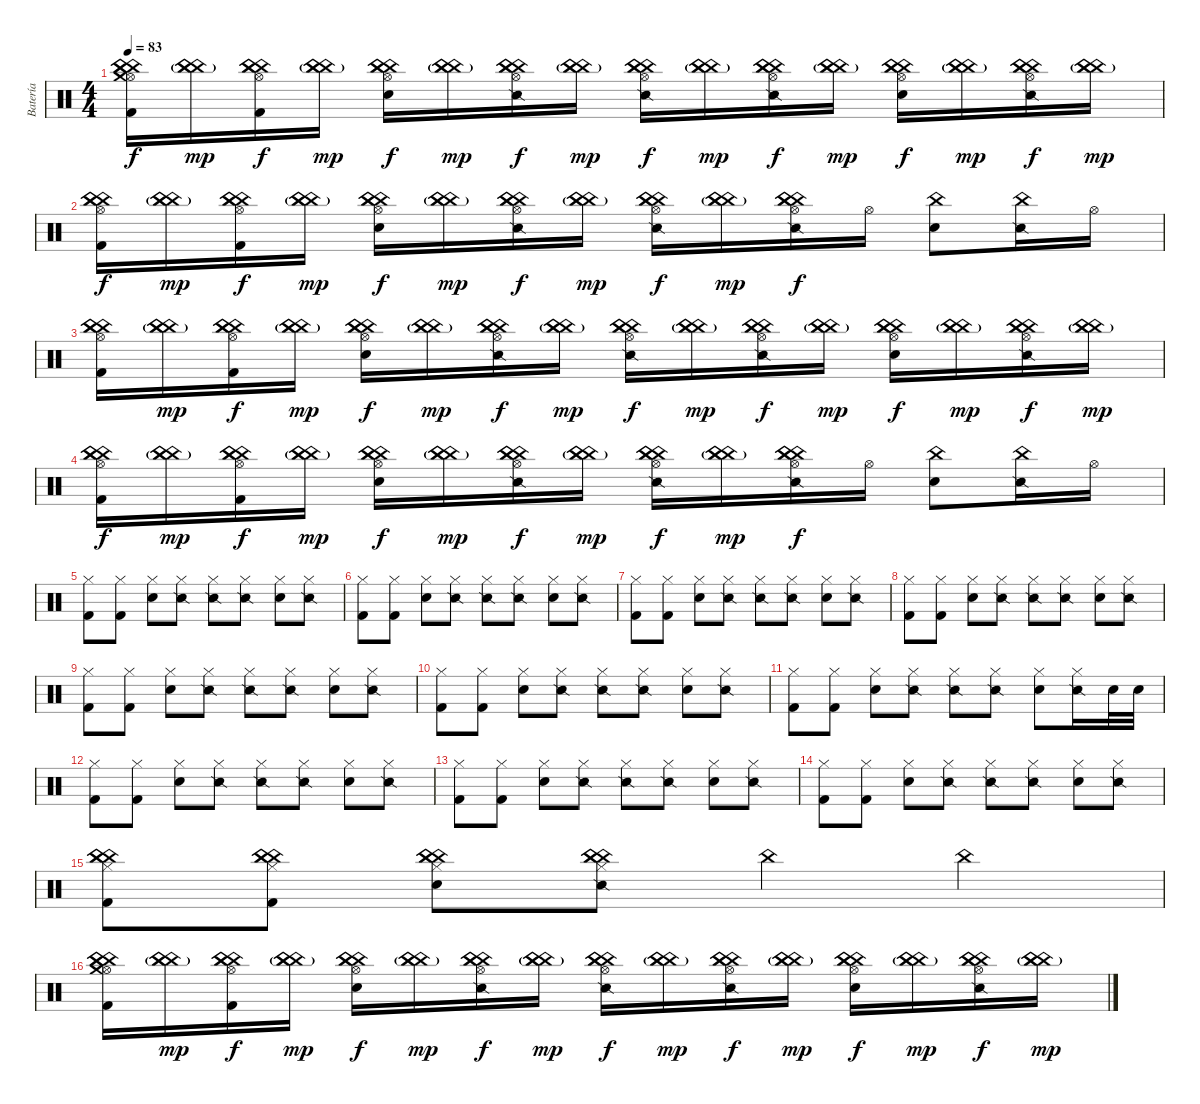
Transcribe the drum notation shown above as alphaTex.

\track ("Batería" "Batería") {instrument percussion}
\staff {score}
\articulation defaults
\ts (4 4)
\tempo 83
\clef neutral
\ks c
("Hi-Hat (open)" "China (hit)" "China (hit)" "China (hit)" "Kick (hit) 2" "Crash medium (hit)").16{dy f} ("China (hit)"{g} "China (hit)"{g} "China (hit)"{g}).16{dy mp} ("Hi-Hat (open)" "China (hit)" "China (hit)" "China (hit)" "Kick (hit) 2").16{dy f} ("China (hit)"{g} "China (hit)"{g} "China (hit)"{g}).16{dy mp} ("Hi-Hat (open)" "China (hit)" "China (hit)" "China (hit)" "Electric Snare (hit)").16{dy f} ("China (hit)"{g} "China (hit)"{g} "China (hit)"{g}).16{dy mp} ("Hi-Hat (open)" "China (hit)" "China (hit)" "China (hit)" "Snare (side stick) 2").16{dy f} ("China (hit)"{g} "China (hit)"{g} "China (hit)"{g}).16{dy mp} ("Hi-Hat (open)" "China (hit)" "China (hit)" "China (hit)" "Snare (side stick) 2").16{dy f} ("China (hit)"{g} "China (hit)"{g} "China (hit)"{g}).16{dy mp} ("Hi-Hat (open)" "China (hit)" "China (hit)" "China (hit)" "Snare (side stick) 2").16{dy f} ("China (hit)"{g} "China (hit)"{g} "China (hit)"{g}).16{dy mp} ("Hi-Hat (open)" "China (hit)" "China (hit)" "China (hit)" "Electric Snare (hit)").16{dy f} ("China (hit)"{g} "China (hit)"{g} "China (hit)"{g}).16{dy mp} ("Hi-Hat (open)" "China (hit)" "China (hit)" "China (hit)" "Snare (side stick) 2").16{dy f} ("China (hit)"{g} "China (hit)"{g} "China (hit)"{g}).16{dy mp} |
("Hi-Hat (open)" "China (hit)" "China (hit)" "China (hit)" "Kick (hit) 2").16{dy f} ("China (hit)"{g} "China (hit)"{g} "China (hit)"{g}).16{dy mp} ("Hi-Hat (open)" "China (hit)" "China (hit)" "China (hit)" "Kick (hit) 2").16{dy f} ("China (hit)"{g} "China (hit)"{g} "China (hit)"{g}).16{dy mp} ("Hi-Hat (open)" "China (hit)" "China (hit)" "China (hit)" "Electric Snare (hit)").16{dy f} ("China (hit)"{g} "China (hit)"{g} "China (hit)"{g}).16{dy mp} ("Hi-Hat (open)" "China (hit)" "China (hit)" "China (hit)" "Snare (side stick) 2").16{dy f} ("China (hit)"{g} "China (hit)"{g} "China (hit)"{g}).16{dy mp} ("Hi-Hat (open)" "China (hit)" "China (hit)" "China (hit)" "Snare (side stick) 2").16{dy f} ("China (hit)"{g} "China (hit)"{g} "China (hit)"{g}).16{dy mp} ("Hi-Hat (open)" "China (hit)" "China (hit)" "China (hit)" "Snare (side stick) 2").16{dy f} "Hi-Hat (open)".16 ("China (hit)" "Electric Snare (hit)").8 ("China (hit)" "Snare (side stick) 2").16 "Hi-Hat (open)".16 |
("Hi-Hat (open)" "China (hit)" "China (hit)" "China (hit)" "Kick (hit) 2").16 ("China (hit)"{g} "China (hit)"{g} "China (hit)"{g}).16{dy mp} ("Hi-Hat (open)" "China (hit)" "China (hit)" "China (hit)" "Kick (hit) 2").16{dy f} ("China (hit)"{g} "China (hit)"{g} "China (hit)"{g}).16{dy mp} ("Hi-Hat (open)" "China (hit)" "China (hit)" "China (hit)" "Electric Snare (hit)").16{dy f} ("China (hit)"{g} "China (hit)"{g} "China (hit)"{g}).16{dy mp} ("Hi-Hat (open)" "China (hit)" "China (hit)" "China (hit)" "Snare (side stick) 2").16{dy f} ("China (hit)"{g} "China (hit)"{g} "China (hit)"{g}).16{dy mp} ("Hi-Hat (open)" "China (hit)" "China (hit)" "China (hit)" "Snare (side stick) 2").16{dy f} ("China (hit)"{g} "China (hit)"{g} "China (hit)"{g}).16{dy mp} ("Hi-Hat (open)" "China (hit)" "China (hit)" "China (hit)" "Snare (side stick) 2").16{dy f} ("China (hit)"{g} "China (hit)"{g} "China (hit)"{g}).16{dy mp} ("Hi-Hat (open)" "China (hit)" "China (hit)" "China (hit)" "Electric Snare (hit)").16{dy f} ("China (hit)"{g} "China (hit)"{g} "China (hit)"{g}).16{dy mp} ("Hi-Hat (open)" "China (hit)" "China (hit)" "China (hit)" "Snare (side stick) 2").16{dy f} ("China (hit)"{g} "China (hit)"{g} "China (hit)"{g}).16{dy mp} |
("Hi-Hat (open)" "China (hit)" "China (hit)" "China (hit)" "Kick (hit) 2").16{dy f} ("China (hit)"{g} "China (hit)"{g} "China (hit)"{g}).16{dy mp} ("Hi-Hat (open)" "China (hit)" "China (hit)" "China (hit)" "Kick (hit) 2").16{dy f} ("China (hit)"{g} "China (hit)"{g} "China (hit)"{g}).16{dy mp} ("Hi-Hat (open)" "China (hit)" "China (hit)" "China (hit)" "Electric Snare (hit)").16{dy f} ("China (hit)"{g} "China (hit)"{g} "China (hit)"{g}).16{dy mp} ("Hi-Hat (open)" "China (hit)" "China (hit)" "China (hit)" "Snare (side stick) 2").16{dy f} ("China (hit)"{g} "China (hit)"{g} "China (hit)"{g}).16{dy mp} ("Hi-Hat (open)" "China (hit)" "China (hit)" "China (hit)" "Snare (side stick) 2").16{dy f} ("China (hit)"{g} "China (hit)"{g} "China (hit)"{g}).16{dy mp} ("Hi-Hat (open)" "China (hit)" "China (hit)" "China (hit)" "Snare (side stick) 2").16{dy f} "Hi-Hat (open)".16 ("China (hit)" "Electric Snare (hit)").8 ("China (hit)" "Snare (side stick) 2").16 "Hi-Hat (open)".16 |
("Hi-Hat (closed)" "Kick (hit) 2").8 ("Hi-Hat (closed)" "Kick (hit) 2").8 ("Hi-Hat (closed)" "Electric Snare (hit)").8 ("Hi-Hat (closed)" "Snare (side stick) 2").8 ("Hi-Hat (closed)" "Snare (side stick) 2").8 ("Hi-Hat (closed)" "Snare (side stick) 2").8 ("Hi-Hat (closed)" "Electric Snare (hit)").8 ("Hi-Hat (closed)" "Snare (side stick) 2").8 |
("Hi-Hat (closed)" "Kick (hit) 2").8 ("Hi-Hat (closed)" "Kick (hit) 2").8 ("Hi-Hat (closed)" "Electric Snare (hit)").8 ("Hi-Hat (closed)" "Snare (side stick) 2").8 ("Hi-Hat (closed)" "Snare (side stick) 2").8 ("Hi-Hat (closed)" "Snare (side stick) 2").8 ("Hi-Hat (closed)" "Electric Snare (hit)").8 ("Hi-Hat (closed)" "Snare (side stick) 2").8 |
("Hi-Hat (closed)" "Kick (hit) 2").8 ("Hi-Hat (closed)" "Kick (hit) 2").8 ("Hi-Hat (closed)" "Electric Snare (hit)").8 ("Hi-Hat (closed)" "Snare (side stick) 2").8 ("Hi-Hat (closed)" "Snare (side stick) 2").8 ("Hi-Hat (closed)" "Snare (side stick) 2").8 ("Hi-Hat (closed)" "Electric Snare (hit)").8 ("Hi-Hat (closed)" "Snare (side stick) 2").8 |
("Hi-Hat (closed)" "Kick (hit) 2").8 ("Hi-Hat (closed)" "Kick (hit) 2").8 ("Hi-Hat (closed)" "Electric Snare (hit)").8 ("Hi-Hat (closed)" "Snare (side stick) 2").8 ("Hi-Hat (closed)" "Snare (side stick) 2").8 ("Hi-Hat (closed)" "Snare (side stick) 2").8 ("Hi-Hat (closed)" "Electric Snare (hit)").8 ("Hi-Hat (closed)" "Snare (side stick) 2").8 |
("Hi-Hat (closed)" "Kick (hit) 2").8 ("Hi-Hat (closed)" "Kick (hit) 2").8 ("Hi-Hat (closed)" "Electric Snare (hit)").8 ("Hi-Hat (closed)" "Snare (side stick) 2").8 ("Hi-Hat (closed)" "Snare (side stick) 2").8 ("Hi-Hat (closed)" "Snare (side stick) 2").8 ("Hi-Hat (closed)" "Electric Snare (hit)").8 ("Hi-Hat (closed)" "Snare (side stick) 2").8 |
("Hi-Hat (closed)" "Kick (hit) 2").8 ("Hi-Hat (closed)" "Kick (hit) 2").8 ("Hi-Hat (closed)" "Electric Snare (hit)").8 ("Hi-Hat (closed)" "Snare (side stick) 2").8 ("Hi-Hat (closed)" "Snare (side stick) 2").8 ("Hi-Hat (closed)" "Snare (side stick) 2").8 ("Hi-Hat (closed)" "Electric Snare (hit)").8 ("Hi-Hat (closed)" "Snare (side stick) 2").8 |
("Hi-Hat (closed)" "Kick (hit) 2").8 ("Hi-Hat (closed)" "Kick (hit) 2").8 ("Hi-Hat (closed)" "Electric Snare (hit)").8 ("Hi-Hat (closed)" "Snare (side stick) 2").8 ("Hi-Hat (closed)" "Snare (side stick) 2").8 ("Hi-Hat (closed)" "Snare (side stick) 2").8 ("Hi-Hat (closed)" "Electric Snare (hit)").8 ("Hi-Hat (closed)" "Snare (side stick) 2").16 "Electric Snare (hit)".32 "Electric Snare (hit)".32 |
("Hi-Hat (closed)" "Kick (hit) 2").8 ("Hi-Hat (closed)" "Kick (hit) 2").8 ("Hi-Hat (closed)" "Electric Snare (hit)").8 ("Hi-Hat (closed)" "Snare (side stick) 2").8 ("Hi-Hat (closed)" "Snare (side stick) 2").8 ("Hi-Hat (closed)" "Snare (side stick) 2").8 ("Hi-Hat (closed)" "Electric Snare (hit)").8 ("Hi-Hat (closed)" "Snare (side stick) 2").8 |
("Hi-Hat (closed)" "Kick (hit) 2").8 ("Hi-Hat (closed)" "Kick (hit) 2").8 ("Hi-Hat (closed)" "Electric Snare (hit)").8 ("Hi-Hat (closed)" "Snare (side stick) 2").8 ("Hi-Hat (closed)" "Snare (side stick) 2").8 ("Hi-Hat (closed)" "Snare (side stick) 2").8 ("Hi-Hat (closed)" "Electric Snare (hit)").8 ("Hi-Hat (closed)" "Snare (side stick) 2").8 |
("Hi-Hat (closed)" "Kick (hit) 2").8 ("Hi-Hat (closed)" "Kick (hit) 2").8 ("Hi-Hat (closed)" "Electric Snare (hit)").8 ("Hi-Hat (closed)" "Snare (side stick) 2").8 ("Hi-Hat (closed)" "Snare (side stick) 2").8 ("Hi-Hat (closed)" "Snare (side stick) 2").8 ("Hi-Hat (closed)" "Electric Snare (hit)").8 ("Hi-Hat (closed)" "Snare (side stick) 2").8 |
("Hi-Hat (closed)" "China (hit)" "China (hit)" "China (hit)" "Kick (hit) 2").8 ("Hi-Hat (closed)" "China (hit)" "China (hit)" "China (hit)" "Kick (hit) 2").8 ("Hi-Hat (closed)" "China (hit)" "China (hit)" "China (hit)" "Electric Snare (hit)").8 ("Hi-Hat (closed)" "China (hit)" "China (hit)" "China (hit)" "Snare (side stick) 2").8 "China (hit)".4 "China (hit)".4 |
("Hi-Hat (open)" "China (hit)" "China (hit)" "China (hit)" "Kick (hit) 2" "Crash medium (hit)").16 ("China (hit)"{g} "China (hit)"{g} "China (hit)"{g}).16{dy mp} ("Hi-Hat (open)" "China (hit)" "China (hit)" "China (hit)" "Kick (hit) 2").16{dy f} ("China (hit)"{g} "China (hit)"{g} "China (hit)"{g}).16{dy mp} ("Hi-Hat (open)" "China (hit)" "China (hit)" "China (hit)" "Electric Snare (hit)").16{dy f} ("China (hit)"{g} "China (hit)"{g} "China (hit)"{g}).16{dy mp} ("Hi-Hat (open)" "China (hit)" "China (hit)" "China (hit)" "Snare (side stick) 2").16{dy f} ("China (hit)"{g} "China (hit)"{g} "China (hit)"{g}).16{dy mp} ("Hi-Hat (open)" "China (hit)" "China (hit)" "China (hit)" "Snare (side stick) 2").16{dy f} ("China (hit)"{g} "China (hit)"{g} "China (hit)"{g}).16{dy mp} ("Hi-Hat (open)" "China (hit)" "China (hit)" "China (hit)" "Snare (side stick) 2").16{dy f} ("China (hit)"{g} "China (hit)"{g} "China (hit)"{g}).16{dy mp} ("Hi-Hat (open)" "China (hit)" "China (hit)" "China (hit)" "Electric Snare (hit)").16{dy f} ("China (hit)"{g} "China (hit)"{g} "China (hit)"{g}).16{dy mp} ("Hi-Hat (open)" "China (hit)" "China (hit)" "China (hit)" "Snare (side stick) 2").16{dy f} ("China (hit)"{g} "China (hit)"{g} "China (hit)"{g}).16{dy mp}
